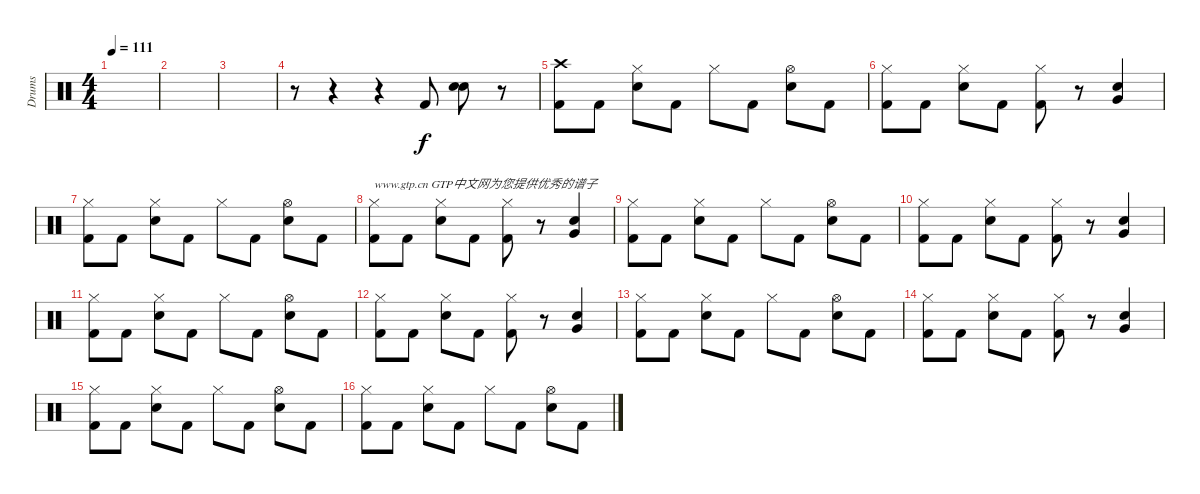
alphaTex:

\track ("Drums" "Drums") {instrument percussion}
\staff {score}
\articulation defaults
\ts (4 4)
\tempo 111
\clef neutral
\ks c
|
|
|
r.8 r.4 r.4 "Kick (hit) 2".8 ("Snare (hit) 2" "Snare (hit) 2").8 r.8 |
("Crash high (hit)" "Kick (hit) 2").8 "Kick (hit) 2".8 ("Hi-Hat (closed)" "Snare (hit) 2").8 "Kick (hit) 2".8 "Hi-Hat (closed)".8 "Kick (hit) 2".8 ("Hi-Hat (open)" "Snare (hit) 2").8 "Kick (hit) 2".8 |
("Hi-Hat (closed)" "Kick (hit) 2").8 "Kick (hit) 2".8 ("Hi-Hat (closed)" "Snare (hit) 2").8 "Kick (hit) 2".8 ("Hi-Hat (closed)" "Kick (hit) 2").8 r.8 ("Snare (hit) 2" "Very Low Tom (hit)").4 |
("Hi-Hat (closed)" "Kick (hit) 2").8 "Kick (hit) 2".8 ("Hi-Hat (closed)" "Snare (hit) 2").8 "Kick (hit) 2".8 "Hi-Hat (closed)".8 "Kick (hit) 2".8 ("Hi-Hat (open)" "Snare (hit) 2").8 "Kick (hit) 2".8 |
("Hi-Hat (closed)" "Kick (hit) 2").8{txt "www.gtp.cn GTP中文网为您提供优秀的谱子"} "Kick (hit) 2".8 ("Hi-Hat (closed)" "Snare (hit) 2").8 "Kick (hit) 2".8 ("Hi-Hat (closed)" "Kick (hit) 2").8 r.8 ("Snare (hit) 2" "Very Low Tom (hit)").4 |
("Hi-Hat (closed)" "Kick (hit) 2").8 "Kick (hit) 2".8 ("Hi-Hat (closed)" "Snare (hit) 2").8 "Kick (hit) 2".8 "Hi-Hat (closed)".8 "Kick (hit) 2".8 ("Hi-Hat (open)" "Snare (hit) 2").8 "Kick (hit) 2".8 |
("Hi-Hat (closed)" "Kick (hit) 2").8 "Kick (hit) 2".8 ("Hi-Hat (closed)" "Snare (hit) 2").8 "Kick (hit) 2".8 ("Hi-Hat (closed)" "Kick (hit) 2").8 r.8 ("Snare (hit) 2" "Very Low Tom (hit)").4 |
("Hi-Hat (closed)" "Kick (hit) 2").8 "Kick (hit) 2".8 ("Hi-Hat (closed)" "Snare (hit) 2").8 "Kick (hit) 2".8 "Hi-Hat (closed)".8 "Kick (hit) 2".8 ("Hi-Hat (open)" "Snare (hit) 2").8 "Kick (hit) 2".8 |
("Hi-Hat (closed)" "Kick (hit) 2").8 "Kick (hit) 2".8 ("Hi-Hat (closed)" "Snare (hit) 2").8 "Kick (hit) 2".8 ("Hi-Hat (closed)" "Kick (hit) 2").8 r.8 ("Snare (hit) 2" "Very Low Tom (hit)").4 |
("Hi-Hat (closed)" "Kick (hit) 2").8 "Kick (hit) 2".8 ("Hi-Hat (closed)" "Snare (hit) 2").8 "Kick (hit) 2".8 "Hi-Hat (closed)".8 "Kick (hit) 2".8 ("Hi-Hat (open)" "Snare (hit) 2").8 "Kick (hit) 2".8 |
("Hi-Hat (closed)" "Kick (hit) 2").8 "Kick (hit) 2".8 ("Hi-Hat (closed)" "Snare (hit) 2").8 "Kick (hit) 2".8 ("Hi-Hat (closed)" "Kick (hit) 2").8 r.8 ("Snare (hit) 2" "Very Low Tom (hit)").4 |
("Hi-Hat (closed)" "Kick (hit) 2").8 "Kick (hit) 2".8 ("Hi-Hat (closed)" "Snare (hit) 2").8 "Kick (hit) 2".8 "Hi-Hat (closed)".8 "Kick (hit) 2".8 ("Hi-Hat (open)" "Snare (hit) 2").8 "Kick (hit) 2".8 |
("Hi-Hat (closed)" "Kick (hit) 2").8 "Kick (hit) 2".8 ("Hi-Hat (closed)" "Snare (hit) 2").8 "Kick (hit) 2".8 "Hi-Hat (closed)".8 "Kick (hit) 2".8 ("Hi-Hat (open)" "Snare (hit) 2").8 "Kick (hit) 2".8
